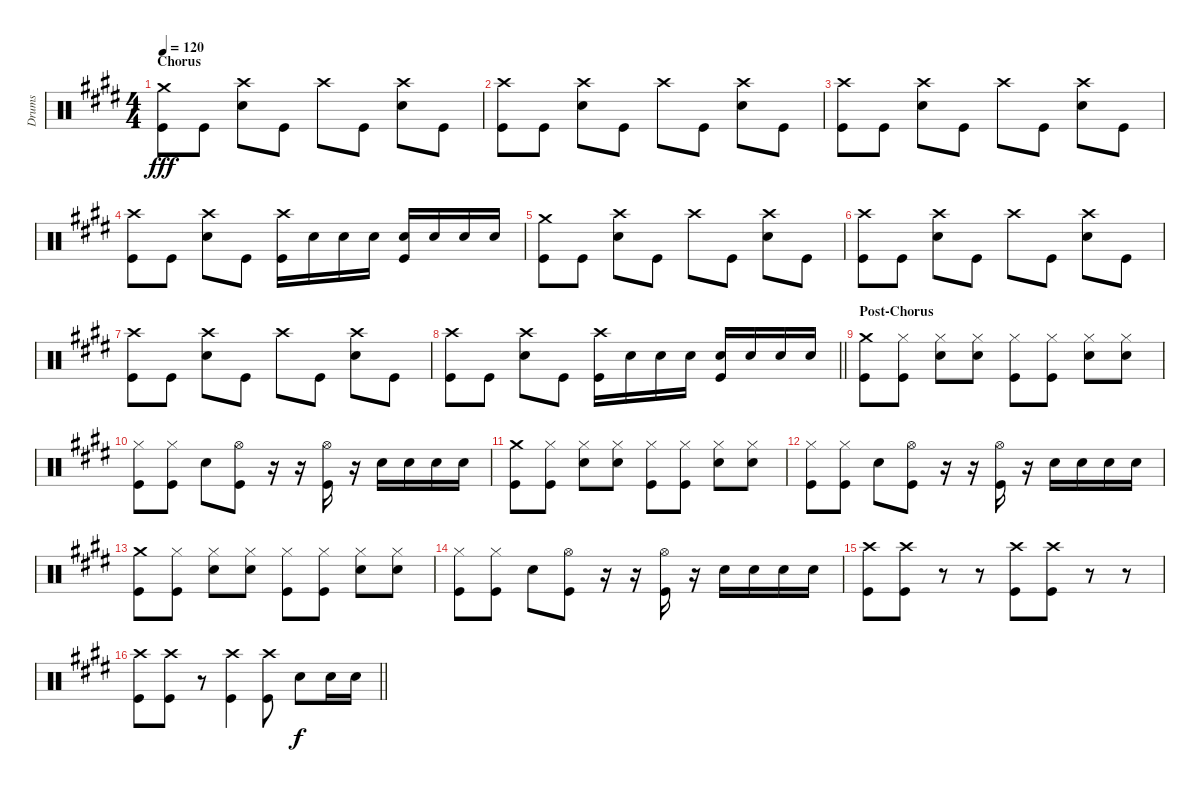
\track ("Drums" "Drums") {instrument percussion}
\staff {score}
\articulation defaults
\ts (4 4)
\section ("" "Chorus")
\tempo 120
\clef neutral
\ks e
("Crash medium (hit)" "Kick (hit)").8{dy fff} "Kick (hit)".8 ("Crash high (hit)" "Snare (hit) 2").8 "Kick (hit)".8 "Crash high (hit)".8 "Kick (hit)".8 ("Crash high (hit)" "Snare (hit) 2").8 "Kick (hit)".8 |
("Crash high (hit)" "Kick (hit)").8 "Kick (hit)".8 ("Crash high (hit)" "Snare (hit) 2").8 "Kick (hit)".8 "Crash high (hit)".8 "Kick (hit)".8 ("Crash high (hit)" "Snare (hit) 2").8 "Kick (hit)".8 |
("Crash high (hit)" "Kick (hit)").8 "Kick (hit)".8 ("Crash high (hit)" "Snare (hit) 2").8 "Kick (hit)".8 "Crash high (hit)".8 "Kick (hit)".8 ("Crash high (hit)" "Snare (hit) 2").8 "Kick (hit)".8 |
("Crash high (hit)" "Kick (hit)").8 "Kick (hit)".8 ("Crash high (hit)" "Snare (hit) 2").8 "Kick (hit)".8 ("Crash high (hit)" "Kick (hit)").16 "Snare (hit) 2".16 "Snare (hit) 2".16 "Snare (hit) 2".16 ("Snare (hit) 2" "Kick (hit)").16 "Snare (hit) 2".16 "Snare (hit) 2".16 "Snare (hit) 2".16 |
("Crash medium (hit)" "Kick (hit)").8 "Kick (hit)".8 ("Crash high (hit)" "Snare (hit) 2").8 "Kick (hit)".8 "Crash high (hit)".8 "Kick (hit)".8 ("Crash high (hit)" "Snare (hit) 2").8 "Kick (hit)".8 |
("Crash high (hit)" "Kick (hit)").8 "Kick (hit)".8 ("Crash high (hit)" "Snare (hit) 2").8 "Kick (hit)".8 "Crash high (hit)".8 "Kick (hit)".8 ("Crash high (hit)" "Snare (hit) 2").8 "Kick (hit)".8 |
("Crash high (hit)" "Kick (hit)").8 "Kick (hit)".8 ("Crash high (hit)" "Snare (hit) 2").8 "Kick (hit)".8 "Crash high (hit)".8 "Kick (hit)".8 ("Crash high (hit)" "Snare (hit) 2").8 "Kick (hit)".8 |
\barLineRight lightlight
("Crash high (hit)" "Kick (hit)").8 "Kick (hit)".8 ("Crash high (hit)" "Snare (hit) 2").8 "Kick (hit)".8 ("Crash high (hit)" "Kick (hit)").16 "Snare (hit) 2".16 "Snare (hit) 2".16 "Snare (hit) 2".16 ("Snare (hit) 2" "Kick (hit)").16 "Snare (hit) 2".16 "Snare (hit) 2".16 "Snare (hit) 2".16 |
\section ("" "Post-Chorus")
("Crash medium (hit)" "Kick (hit)").8 ("Hi-Hat (closed)" "Kick (hit)").8 ("Hi-Hat (closed)" "Snare (hit) 2").8 ("Hi-Hat (closed)" "Snare (hit) 2").8 ("Hi-Hat (closed)" "Kick (hit)").8 ("Hi-Hat (closed)" "Kick (hit)").8 ("Hi-Hat (closed)" "Snare (hit) 2").8 ("Hi-Hat (closed)" "Snare (hit) 2").8 |
("Hi-Hat (closed)" "Kick (hit)").8 ("Hi-Hat (closed)" "Kick (hit)").8 "Snare (hit) 2".8 ("Hi-Hat (open)" "Kick (hit)").8 r.16 r.16 ("Hi-Hat (open)" "Kick (hit)").16 r.16 "Snare (hit) 2".16 "Snare (hit) 2".16 "Snare (hit) 2".16 "Snare (hit) 2".16 |
("Crash medium (hit)" "Kick (hit)").8 ("Hi-Hat (closed)" "Kick (hit)").8 ("Hi-Hat (closed)" "Snare (hit) 2").8 ("Hi-Hat (closed)" "Snare (hit) 2").8 ("Hi-Hat (closed)" "Kick (hit)").8 ("Hi-Hat (closed)" "Kick (hit)").8 ("Hi-Hat (closed)" "Snare (hit) 2").8 ("Hi-Hat (closed)" "Snare (hit) 2").8 |
("Hi-Hat (closed)" "Kick (hit)").8 ("Hi-Hat (closed)" "Kick (hit)").8 "Snare (hit) 2".8 ("Hi-Hat (open)" "Kick (hit)").8 r.16 r.16 ("Hi-Hat (open)" "Kick (hit)").16 r.16 "Snare (hit) 2".16 "Snare (hit) 2".16 "Snare (hit) 2".16 "Snare (hit) 2".16 |
("Crash medium (hit)" "Kick (hit)").8 ("Hi-Hat (closed)" "Kick (hit)").8 ("Hi-Hat (closed)" "Snare (hit) 2").8 ("Hi-Hat (closed)" "Snare (hit) 2").8 ("Hi-Hat (closed)" "Kick (hit)").8 ("Hi-Hat (closed)" "Kick (hit)").8 ("Hi-Hat (closed)" "Snare (hit) 2").8 ("Hi-Hat (closed)" "Snare (hit) 2").8 |
("Hi-Hat (closed)" "Kick (hit)").8 ("Hi-Hat (closed)" "Kick (hit)").8 "Snare (hit) 2".8 ("Hi-Hat (open)" "Kick (hit)").8 r.16 r.16 ("Hi-Hat (open)" "Kick (hit)").16 r.16 "Snare (hit) 2".16 "Snare (hit) 2".16 "Snare (hit) 2".16 "Snare (hit) 2".16 |
("Crash high (hit)" "Kick (hit)").8 ("Crash high (hit)" "Kick (hit)").8 r.8 r.8 ("Crash high (hit)" "Kick (hit)").8 ("Crash high (hit)" "Kick (hit)").8 r.8 r.8 |
\barLineRight lightlight
("Crash high (hit)" "Kick (hit)").8 ("Crash high (hit)" "Kick (hit)").8 r.8 ("Crash high (hit)" "Kick (hit)").4 ("Crash high (hit)" "Kick (hit)").8 "Snare (hit) 2".8{dy f} "Snare (hit) 2".16 "Snare (hit) 2".16
